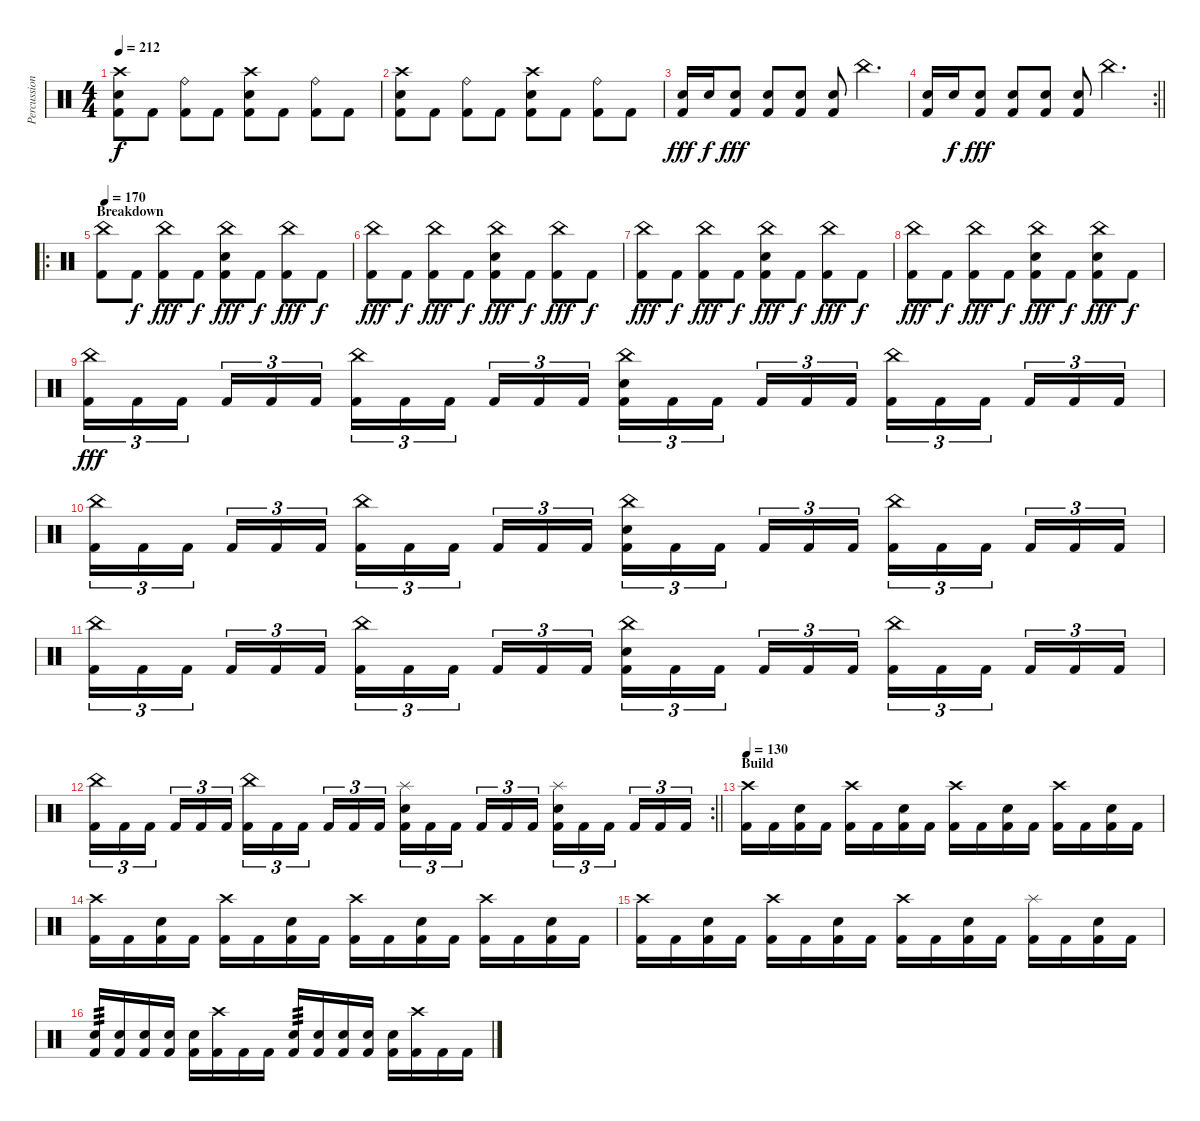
\track ("Percussion" "Percussion") {instrument percussion}
\staff {score}
\articulation defaults
\ts (4 4)
\tempo 212
\clef neutral
\ks c
("Crash high (hit)" "Electric Snare (hit)" "Kick (hit) 2").8{dy f} "Kick (hit) 2".8 ("Ride (bell)" "Kick (hit) 2").8 "Kick (hit) 2".8 ("Crash high (hit)" "Electric Snare (hit)" "Kick (hit) 2").8 "Kick (hit) 2".8 ("Ride (bell)" "Kick (hit) 2").8 "Kick (hit) 2".8 |
("Crash high (hit)" "Electric Snare (hit)" "Kick (hit) 2").8 "Kick (hit) 2".8 ("Ride (bell)" "Kick (hit) 2").8 "Kick (hit) 2".8 ("Crash high (hit)" "Electric Snare (hit)" "Kick (hit) 2").8 "Kick (hit) 2".8 ("Ride (bell)" "Kick (hit) 2").8 "Kick (hit) 2".8 |
("Electric Snare (hit)" "Kick (hit) 2").16{dy fff} "Electric Snare (hit)".16{dy f} ("Electric Snare (hit)" "Kick (hit) 2").8{dy fff} ("Electric Snare (hit)" "Kick (hit) 2").8 ("Electric Snare (hit)" "Kick (hit) 2").8 ("Electric Snare (hit)" "Kick (hit) 2").8 "China (hit)".4{d} |
\rc 2
\barLineRight lightlight
("Electric Snare (hit)" "Kick (hit) 2").16 "Electric Snare (hit)".16{dy f} ("Electric Snare (hit)" "Kick (hit) 2").8{dy fff} ("Electric Snare (hit)" "Kick (hit) 2").8 ("Electric Snare (hit)" "Kick (hit) 2").8 ("Electric Snare (hit)" "Kick (hit) 2").8 "China (hit)".4{d} |
\ro
\section ("" "Breakdown")
\tempo 170
("China (hit)" "Kick (hit) 2").8 "Kick (hit) 2".8{dy f} ("China (hit)" "Kick (hit) 2").8{dy fff} "Kick (hit) 2".8{dy f} ("China (hit)" "Electric Snare (hit)" "Kick (hit) 2").8{dy fff} "Kick (hit) 2".8{dy f} ("China (hit)" "Kick (hit) 2").8{dy fff} "Kick (hit) 2".8{dy f} |
("China (hit)" "Kick (hit) 2").8{dy fff} "Kick (hit) 2".8{dy f} ("China (hit)" "Kick (hit) 2").8{dy fff} "Kick (hit) 2".8{dy f} ("China (hit)" "Electric Snare (hit)" "Kick (hit) 2").8{dy fff} "Kick (hit) 2".8{dy f} ("China (hit)" "Kick (hit) 2").8{dy fff} "Kick (hit) 2".8{dy f} |
("China (hit)" "Kick (hit) 2").8{dy fff} "Kick (hit) 2".8{dy f} ("China (hit)" "Kick (hit) 2").8{dy fff} "Kick (hit) 2".8{dy f} ("China (hit)" "Electric Snare (hit)" "Kick (hit) 2").8{dy fff} "Kick (hit) 2".8{dy f} ("China (hit)" "Kick (hit) 2").8{dy fff} "Kick (hit) 2".8{dy f} |
("China (hit)" "Kick (hit) 2").8{dy fff} "Kick (hit) 2".8{dy f} ("China (hit)" "Kick (hit) 2").8{dy fff} "Kick (hit) 2".8{dy f} ("China (hit)" "Electric Snare (hit)" "Kick (hit) 2").8{dy fff} "Kick (hit) 2".8{dy f} ("China (hit)" "Electric Snare (hit)" "Kick (hit) 2").8{dy fff} "Kick (hit) 2".8{dy f} |
("China (hit)" "Kick (hit) 2").16{tu (3 2) dy fff} "Kick (hit) 2".16{tu (3 2)} "Kick (hit) 2".16{tu (3 2)} "Kick (hit) 2".16{tu (3 2)} "Kick (hit) 2".16{tu (3 2)} "Kick (hit) 2".16{tu (3 2)} ("China (hit)" "Kick (hit) 2").16{tu (3 2)} "Kick (hit) 2".16{tu (3 2)} "Kick (hit) 2".16{tu (3 2)} "Kick (hit) 2".16{tu (3 2)} "Kick (hit) 2".16{tu (3 2)} "Kick (hit) 2".16{tu (3 2)} ("China (hit)" "Electric Snare (hit)" "Kick (hit) 2").16{tu (3 2)} "Kick (hit) 2".16{tu (3 2)} "Kick (hit) 2".16{tu (3 2)} "Kick (hit) 2".16{tu (3 2)} "Kick (hit) 2".16{tu (3 2)} "Kick (hit) 2".16{tu (3 2)} ("China (hit)" "Kick (hit) 2").16{tu (3 2)} "Kick (hit) 2".16{tu (3 2)} "Kick (hit) 2".16{tu (3 2)} "Kick (hit) 2".16{tu (3 2)} "Kick (hit) 2".16{tu (3 2)} "Kick (hit) 2".16{tu (3 2)} |
("China (hit)" "Kick (hit) 2").16{tu (3 2)} "Kick (hit) 2".16{tu (3 2)} "Kick (hit) 2".16{tu (3 2)} "Kick (hit) 2".16{tu (3 2)} "Kick (hit) 2".16{tu (3 2)} "Kick (hit) 2".16{tu (3 2)} ("China (hit)" "Kick (hit) 2").16{tu (3 2)} "Kick (hit) 2".16{tu (3 2)} "Kick (hit) 2".16{tu (3 2)} "Kick (hit) 2".16{tu (3 2)} "Kick (hit) 2".16{tu (3 2)} "Kick (hit) 2".16{tu (3 2)} ("China (hit)" "Electric Snare (hit)" "Kick (hit) 2").16{tu (3 2)} "Kick (hit) 2".16{tu (3 2)} "Kick (hit) 2".16{tu (3 2)} "Kick (hit) 2".16{tu (3 2)} "Kick (hit) 2".16{tu (3 2)} "Kick (hit) 2".16{tu (3 2)} ("China (hit)" "Kick (hit) 2").16{tu (3 2)} "Kick (hit) 2".16{tu (3 2)} "Kick (hit) 2".16{tu (3 2)} "Kick (hit) 2".16{tu (3 2)} "Kick (hit) 2".16{tu (3 2)} "Kick (hit) 2".16{tu (3 2)} |
("China (hit)" "Kick (hit) 2").16{tu (3 2)} "Kick (hit) 2".16{tu (3 2)} "Kick (hit) 2".16{tu (3 2)} "Kick (hit) 2".16{tu (3 2)} "Kick (hit) 2".16{tu (3 2)} "Kick (hit) 2".16{tu (3 2)} ("China (hit)" "Kick (hit) 2").16{tu (3 2)} "Kick (hit) 2".16{tu (3 2)} "Kick (hit) 2".16{tu (3 2)} "Kick (hit) 2".16{tu (3 2)} "Kick (hit) 2".16{tu (3 2)} "Kick (hit) 2".16{tu (3 2)} ("China (hit)" "Electric Snare (hit)" "Kick (hit) 2").16{tu (3 2)} "Kick (hit) 2".16{tu (3 2)} "Kick (hit) 2".16{tu (3 2)} "Kick (hit) 2".16{tu (3 2)} "Kick (hit) 2".16{tu (3 2)} "Kick (hit) 2".16{tu (3 2)} ("China (hit)" "Kick (hit) 2").16{tu (3 2)} "Kick (hit) 2".16{tu (3 2)} "Kick (hit) 2".16{tu (3 2)} "Kick (hit) 2".16{tu (3 2)} "Kick (hit) 2".16{tu (3 2)} "Kick (hit) 2".16{tu (3 2)} |
\rc 2
\barLineRight lightlight
("China (hit)" "Kick (hit) 2").16{tu (3 2)} "Kick (hit) 2".16{tu (3 2)} "Kick (hit) 2".16{tu (3 2)} "Kick (hit) 2".16{tu (3 2)} "Kick (hit) 2".16{tu (3 2)} "Kick (hit) 2".16{tu (3 2)} ("China (hit)" "Kick (hit) 2").16{tu (3 2)} "Kick (hit) 2".16{tu (3 2)} "Kick (hit) 2".16{tu (3 2)} "Kick (hit) 2".16{tu (3 2)} "Kick (hit) 2".16{tu (3 2)} "Kick (hit) 2".16{tu (3 2)} ("Splash (hit)" "Electric Snare (hit)" "Kick (hit) 2").16{tu (3 2)} "Kick (hit) 2".16{tu (3 2)} "Kick (hit) 2".16{tu (3 2)} "Kick (hit) 2".16{tu (3 2)} "Kick (hit) 2".16{tu (3 2)} "Kick (hit) 2".16{tu (3 2)} ("Splash (hit)" "Electric Snare (hit)" "Kick (hit) 2").16{tu (3 2)} "Kick (hit) 2".16{tu (3 2)} "Kick (hit) 2".16{tu (3 2)} "Kick (hit) 2".16{tu (3 2)} "Kick (hit) 2".16{tu (3 2)} "Kick (hit) 2".16{tu (3 2)} |
\section ("" "Build")
\tempo 130
("Crash high (hit)" "Kick (hit) 2").16 "Kick (hit) 2".16 ("Electric Snare (hit)" "Kick (hit) 2").16 "Kick (hit) 2".16 ("Crash high (hit)" "Kick (hit) 2").16 "Kick (hit) 2".16 ("Electric Snare (hit)" "Kick (hit) 2").16 "Kick (hit) 2".16 ("Crash high (hit)" "Kick (hit) 2").16 "Kick (hit) 2".16 ("Electric Snare (hit)" "Kick (hit) 2").16 "Kick (hit) 2".16 ("Crash high (hit)" "Kick (hit) 2").16 "Kick (hit) 2".16 ("Electric Snare (hit)" "Kick (hit) 2").16 "Kick (hit) 2".16 |
("Crash high (hit)" "Kick (hit) 2").16 "Kick (hit) 2".16 ("Electric Snare (hit)" "Kick (hit) 2").16 "Kick (hit) 2".16 ("Crash high (hit)" "Kick (hit) 2").16 "Kick (hit) 2".16 ("Electric Snare (hit)" "Kick (hit) 2").16 "Kick (hit) 2".16 ("Crash high (hit)" "Kick (hit) 2").16 "Kick (hit) 2".16 ("Electric Snare (hit)" "Kick (hit) 2").16 "Kick (hit) 2".16 ("Crash high (hit)" "Kick (hit) 2").16 "Kick (hit) 2".16 ("Electric Snare (hit)" "Kick (hit) 2").16 "Kick (hit) 2".16 |
("Crash high (hit)" "Kick (hit) 2").16 "Kick (hit) 2".16 ("Electric Snare (hit)" "Kick (hit) 2").16 "Kick (hit) 2".16 ("Crash high (hit)" "Kick (hit) 2").16 "Kick (hit) 2".16 ("Electric Snare (hit)" "Kick (hit) 2").16 "Kick (hit) 2".16 ("Crash high (hit)" "Kick (hit) 2").16 "Kick (hit) 2".16 ("Electric Snare (hit)" "Kick (hit) 2").16 "Kick (hit) 2".16 ("Splash (hit)" "Kick (hit) 2").16 "Kick (hit) 2".16 ("Electric Snare (hit)" "Kick (hit) 2").16 "Kick (hit) 2".16 |
("Electric Snare (hit)" "Kick (hit) 2").16{tp 3} ("Electric Snare (hit)" "Kick (hit) 2").16 ("Electric Snare (hit)" "Kick (hit) 2").16 ("Electric Snare (hit)" "Kick (hit) 2").16 ("Electric Snare (hit)" "Kick (hit) 2").16 ("Crash high (hit)" "Kick (hit) 2").16 "Kick (hit) 2".16 "Kick (hit) 2".16 ("Electric Snare (hit)" "Kick (hit) 2").16{tp 3} ("Electric Snare (hit)" "Kick (hit) 2").16 ("Electric Snare (hit)" "Kick (hit) 2").16 ("Electric Snare (hit)" "Kick (hit) 2").16 ("Electric Snare (hit)" "Kick (hit) 2").16 ("Crash high (hit)" "Kick (hit) 2").16 "Kick (hit) 2".16 "Kick (hit) 2".16
